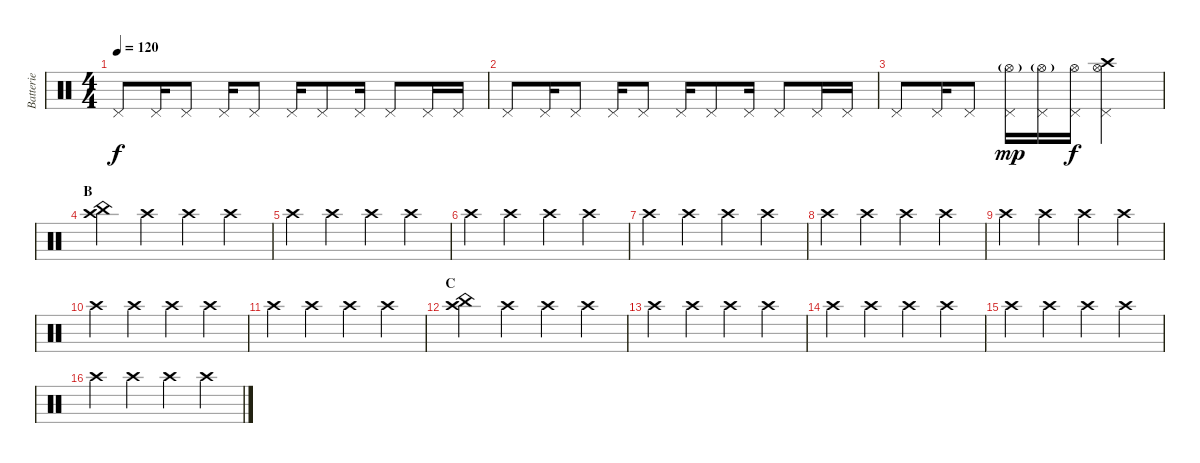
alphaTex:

\track ("Batterie" "Batterie") {instrument percussion}
\staff {score}
\articulation defaults
\ts (4 4)
\tempo 120
\clef neutral
\ks c "Pedal Hi-Hat (hit)".8{dy f} "Pedal Hi-Hat (hit)".16 "Pedal Hi-Hat (hit)".8 "Pedal Hi-Hat (hit)".16 "Pedal Hi-Hat (hit)".8 "Pedal Hi-Hat (hit)".16 "Pedal Hi-Hat (hit)".8 "Pedal Hi-Hat (hit)".16 "Pedal Hi-Hat (hit)".8 "Pedal Hi-Hat (hit)".16 "Pedal Hi-Hat (hit)".16
|
"Pedal Hi-Hat (hit)".8 "Pedal Hi-Hat (hit)".16 "Pedal Hi-Hat (hit)".8 "Pedal Hi-Hat (hit)".16 "Pedal Hi-Hat (hit)".8 "Pedal Hi-Hat (hit)".16 "Pedal Hi-Hat (hit)".8 "Pedal Hi-Hat (hit)".16 "Pedal Hi-Hat (hit)".8 "Pedal Hi-Hat (hit)".16 "Pedal Hi-Hat (hit)".16 |
"Pedal Hi-Hat (hit)".8 "Pedal Hi-Hat (hit)".16 "Pedal Hi-Hat (hit)".8 ("Pedal Hi-Hat (hit)" "Hi-Hat (open)"{g}).16{dy mp} ("Pedal Hi-Hat (hit)" "Hi-Hat (open)"{g}).16 ("Pedal Hi-Hat (hit)" "Hi-Hat (open)").16{dy f} ("Pedal Hi-Hat (hit)" "Hi-Hat (open)" "Crash high (hit)").2 |
\section ("" "B")
("China (hit)" "Crash high (hit)").4 "Crash high (hit)".4 "Crash high (hit)".4 "Crash high (hit)".4 |
"Crash high (hit)".4 "Crash high (hit)".4 "Crash high (hit)".4 "Crash high (hit)".4 |
"Crash high (hit)".4 "Crash high (hit)".4 "Crash high (hit)".4 "Crash high (hit)".4 |
"Crash high (hit)".4 "Crash high (hit)".4 "Crash high (hit)".4 "Crash high (hit)".4 |
"Crash high (hit)".4 "Crash high (hit)".4 "Crash high (hit)".4 "Crash high (hit)".4 |
"Crash high (hit)".4 "Crash high (hit)".4 "Crash high (hit)".4 "Crash high (hit)".4 |
"Crash high (hit)".4 "Crash high (hit)".4 "Crash high (hit)".4 "Crash high (hit)".4 |
"Crash high (hit)".4 "Crash high (hit)".4 "Crash high (hit)".4 "Crash high (hit)".4 |
\section ("" "C")
("China (hit)" "Crash high (hit)").4 "Crash high (hit)".4 "Crash high (hit)".4 "Crash high (hit)".4 |
"Crash high (hit)".4 "Crash high (hit)".4 "Crash high (hit)".4 "Crash high (hit)".4 |
"Crash high (hit)".4 "Crash high (hit)".4 "Crash high (hit)".4 "Crash high (hit)".4 |
"Crash high (hit)".4 "Crash high (hit)".4 "Crash high (hit)".4 "Crash high (hit)".4 |
"Crash high (hit)".4 "Crash high (hit)".4 "Crash high (hit)".4 "Crash high (hit)".4
